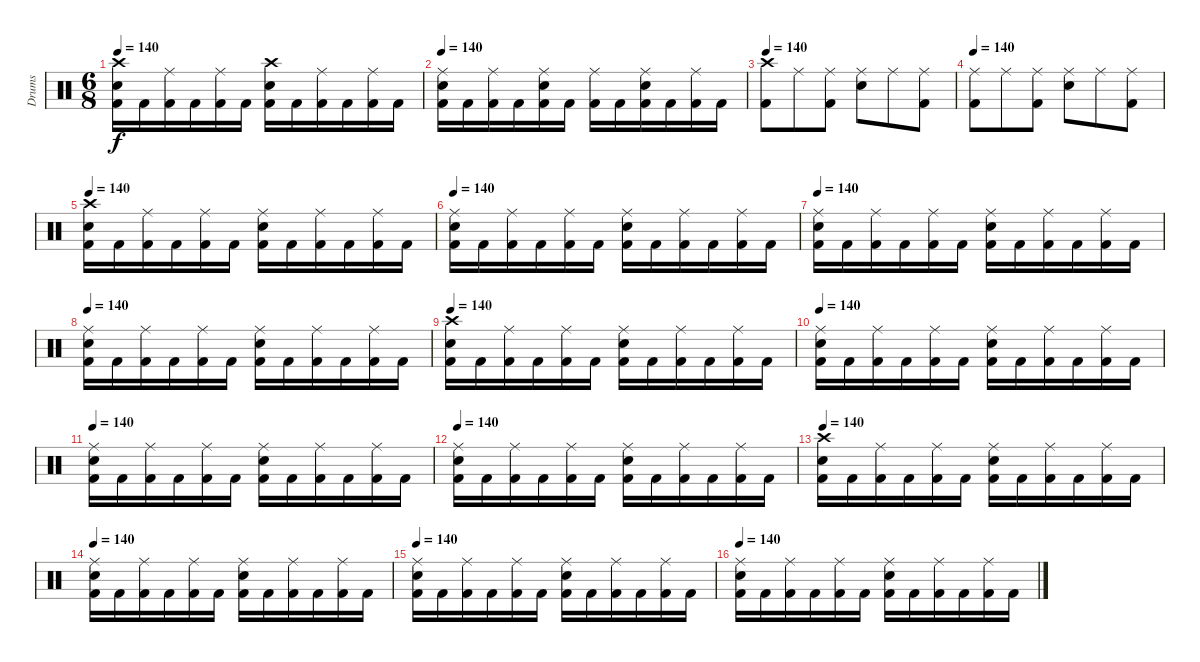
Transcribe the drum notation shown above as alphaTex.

\track ("Drums" "Drums") {instrument percussion}
\staff {score}
\articulation defaults
\ts (6 8)
\tempo 140
\clef neutral
\ks c
("Kick (hit) 2" "Electric Snare (hit)" "Crash high (hit)").16{dy f} "Kick (hit) 2".16 ("Kick (hit) 2" "Ride (middle)").16 "Kick (hit) 2".16 ("Kick (hit) 2" "Ride (middle)").16 "Kick (hit) 2".16 ("Kick (hit) 2" "Electric Snare (hit)" "Crash high (hit)").16 "Kick (hit) 2".16 ("Kick (hit) 2" "Ride (middle)").16 "Kick (hit) 2".16 ("Kick (hit) 2" "Ride (middle)").16 "Kick (hit) 2".16 |
\tempo 140
("Kick (hit) 2" "Electric Snare (hit)" "Ride (middle)").16 "Kick (hit) 2".16 ("Kick (hit) 2" "Ride (middle)").16 "Kick (hit) 2".16 ("Kick (hit) 2" "Electric Snare (hit)" "Ride (middle)").16 "Kick (hit) 2".16 ("Kick (hit) 2" "Ride (middle)").16 "Kick (hit) 2".16 ("Kick (hit) 2" "Electric Snare (hit)" "Ride (middle)").16 "Kick (hit) 2".16 ("Kick (hit) 2" "Ride (middle)").16 "Kick (hit) 2".16 |
\tempo 140
("Kick (hit) 2" "Crash high (hit)").8 "Ride (middle)".8 ("Kick (hit) 2" "Ride (middle)").8 ("Electric Snare (hit)" "Ride (middle)").8 "Ride (middle)".8 ("Kick (hit) 2" "Ride (middle)").8 |
\tempo 140
("Kick (hit) 2" "Ride (middle)").8 "Ride (middle)".8 ("Kick (hit) 2" "Ride (middle)").8 ("Electric Snare (hit)" "Ride (middle)").8 "Ride (middle)".8 ("Kick (hit) 2" "Ride (middle)").8 |
\tempo 140
("Kick (hit) 2" "Electric Snare (hit)" "Crash high (hit)").16 "Kick (hit) 2".16 ("Kick (hit) 2" "Ride (middle)").16 "Kick (hit) 2".16 ("Kick (hit) 2" "Ride (middle)").16 "Kick (hit) 2".16 ("Kick (hit) 2" "Electric Snare (hit)" "Ride (middle)").16 "Kick (hit) 2".16 ("Kick (hit) 2" "Ride (middle)").16 "Kick (hit) 2".16 ("Kick (hit) 2" "Ride (middle)").16 "Kick (hit) 2".16 |
\tempo 140
("Kick (hit) 2" "Electric Snare (hit)" "Ride (middle)").16 "Kick (hit) 2".16 ("Kick (hit) 2" "Ride (middle)").16 "Kick (hit) 2".16 ("Kick (hit) 2" "Ride (middle)").16 "Kick (hit) 2".16 ("Kick (hit) 2" "Electric Snare (hit)" "Ride (middle)").16 "Kick (hit) 2".16 ("Kick (hit) 2" "Ride (middle)").16 "Kick (hit) 2".16 ("Kick (hit) 2" "Ride (middle)").16 "Kick (hit) 2".16 |
\tempo 140
("Kick (hit) 2" "Electric Snare (hit)" "Ride (middle)").16 "Kick (hit) 2".16 ("Kick (hit) 2" "Ride (middle)").16 "Kick (hit) 2".16 ("Kick (hit) 2" "Ride (middle)").16 "Kick (hit) 2".16 ("Kick (hit) 2" "Electric Snare (hit)" "Ride (middle)").16 "Kick (hit) 2".16 ("Kick (hit) 2" "Ride (middle)").16 "Kick (hit) 2".16 ("Kick (hit) 2" "Ride (middle)").16 "Kick (hit) 2".16 |
\tempo 140
("Kick (hit) 2" "Electric Snare (hit)" "Ride (middle)").16 "Kick (hit) 2".16 ("Kick (hit) 2" "Ride (middle)").16 "Kick (hit) 2".16 ("Kick (hit) 2" "Ride (middle)").16 "Kick (hit) 2".16 ("Kick (hit) 2" "Electric Snare (hit)" "Ride (middle)").16 "Kick (hit) 2".16 ("Kick (hit) 2" "Ride (middle)").16 "Kick (hit) 2".16 ("Kick (hit) 2" "Ride (middle)").16 "Kick (hit) 2".16 |
\tempo 140
("Kick (hit) 2" "Electric Snare (hit)" "Crash high (hit)").16 "Kick (hit) 2".16 ("Kick (hit) 2" "Ride (middle)").16 "Kick (hit) 2".16 ("Kick (hit) 2" "Ride (middle)").16 "Kick (hit) 2".16 ("Kick (hit) 2" "Electric Snare (hit)" "Ride (middle)").16 "Kick (hit) 2".16 ("Kick (hit) 2" "Ride (middle)").16 "Kick (hit) 2".16 ("Kick (hit) 2" "Ride (middle)").16 "Kick (hit) 2".16 |
\tempo 140
("Kick (hit) 2" "Electric Snare (hit)" "Ride (middle)").16 "Kick (hit) 2".16 ("Kick (hit) 2" "Ride (middle)").16 "Kick (hit) 2".16 ("Kick (hit) 2" "Ride (middle)").16 "Kick (hit) 2".16 ("Kick (hit) 2" "Electric Snare (hit)" "Ride (middle)").16 "Kick (hit) 2".16 ("Kick (hit) 2" "Ride (middle)").16 "Kick (hit) 2".16 ("Kick (hit) 2" "Ride (middle)").16 "Kick (hit) 2".16 |
\tempo 140
("Kick (hit) 2" "Electric Snare (hit)" "Ride (middle)").16 "Kick (hit) 2".16 ("Kick (hit) 2" "Ride (middle)").16 "Kick (hit) 2".16 ("Kick (hit) 2" "Ride (middle)").16 "Kick (hit) 2".16 ("Kick (hit) 2" "Electric Snare (hit)" "Ride (middle)").16 "Kick (hit) 2".16 ("Kick (hit) 2" "Ride (middle)").16 "Kick (hit) 2".16 ("Kick (hit) 2" "Ride (middle)").16 "Kick (hit) 2".16 |
\tempo 140
("Kick (hit) 2" "Electric Snare (hit)" "Ride (middle)").16 "Kick (hit) 2".16 ("Kick (hit) 2" "Ride (middle)").16 "Kick (hit) 2".16 ("Kick (hit) 2" "Ride (middle)").16 "Kick (hit) 2".16 ("Kick (hit) 2" "Electric Snare (hit)" "Ride (middle)").16 "Kick (hit) 2".16 ("Kick (hit) 2" "Ride (middle)").16 "Kick (hit) 2".16 ("Kick (hit) 2" "Ride (middle)").16 "Kick (hit) 2".16 |
\tempo 140
("Kick (hit) 2" "Electric Snare (hit)" "Crash high (hit)").16 "Kick (hit) 2".16 ("Kick (hit) 2" "Ride (middle)").16 "Kick (hit) 2".16 ("Kick (hit) 2" "Ride (middle)").16 "Kick (hit) 2".16 ("Kick (hit) 2" "Electric Snare (hit)" "Ride (middle)").16 "Kick (hit) 2".16 ("Kick (hit) 2" "Ride (middle)").16 "Kick (hit) 2".16 ("Kick (hit) 2" "Ride (middle)").16 "Kick (hit) 2".16 |
\tempo 140
("Kick (hit) 2" "Electric Snare (hit)" "Ride (middle)").16 "Kick (hit) 2".16 ("Kick (hit) 2" "Ride (middle)").16 "Kick (hit) 2".16 ("Kick (hit) 2" "Ride (middle)").16 "Kick (hit) 2".16 ("Kick (hit) 2" "Electric Snare (hit)" "Ride (middle)").16 "Kick (hit) 2".16 ("Kick (hit) 2" "Ride (middle)").16 "Kick (hit) 2".16 ("Kick (hit) 2" "Ride (middle)").16 "Kick (hit) 2".16 |
\tempo 140
("Kick (hit) 2" "Electric Snare (hit)" "Ride (middle)").16 "Kick (hit) 2".16 ("Kick (hit) 2" "Ride (middle)").16 "Kick (hit) 2".16 ("Kick (hit) 2" "Ride (middle)").16 "Kick (hit) 2".16 ("Kick (hit) 2" "Electric Snare (hit)" "Ride (middle)").16 "Kick (hit) 2".16 ("Kick (hit) 2" "Ride (middle)").16 "Kick (hit) 2".16 ("Kick (hit) 2" "Ride (middle)").16 "Kick (hit) 2".16 |
\tempo 140
("Kick (hit) 2" "Electric Snare (hit)" "Ride (middle)").16 "Kick (hit) 2".16 ("Kick (hit) 2" "Ride (middle)").16 "Kick (hit) 2".16 ("Kick (hit) 2" "Ride (middle)").16 "Kick (hit) 2".16 ("Kick (hit) 2" "Electric Snare (hit)" "Ride (middle)").16 "Kick (hit) 2".16 ("Kick (hit) 2" "Ride (middle)").16 "Kick (hit) 2".16 ("Kick (hit) 2" "Ride (middle)").16 "Kick (hit) 2".16
